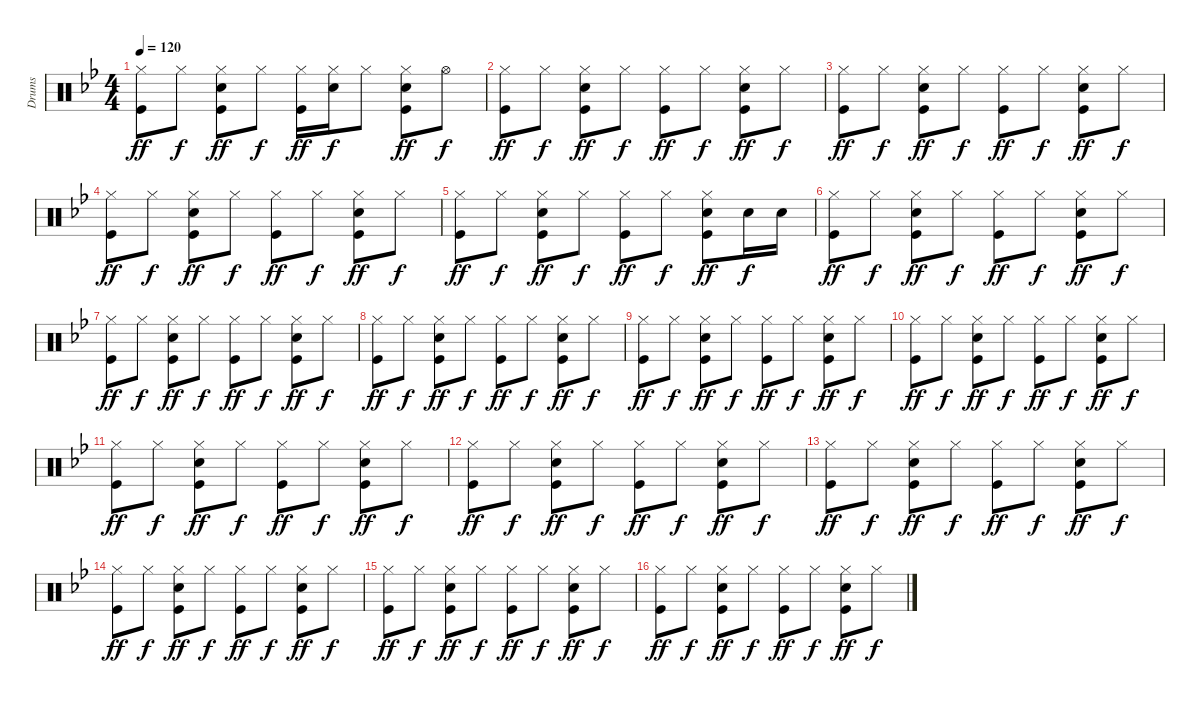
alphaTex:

\track ("Drums" "Drums") {instrument percussion}
\staff {score}
\articulation defaults
\ts (4 4)
\tempo 120
\clef neutral
\ks bb
("Hi-Hat (closed)" "Kick (hit)").8{dy ff} "Hi-Hat (closed)".8{dy f} ("Hi-Hat (closed)" "Snare (hit) 2" "Kick (hit)").8{dy ff} "Hi-Hat (closed)".8{dy f} ("Hi-Hat (closed)" "Kick (hit)").16{dy ff} ("Hi-Hat (closed)" "Snare (hit) 2").16{dy f} "Hi-Hat (closed)".8 ("Hi-Hat (closed)" "Snare (hit) 2" "Kick (hit)").8{dy ff} "Hi-Hat (open)".8{dy f} |
("Hi-Hat (closed)" "Kick (hit)").8{dy ff} "Hi-Hat (closed)".8{dy f} ("Hi-Hat (closed)" "Snare (hit) 2" "Kick (hit)").8{dy ff} "Hi-Hat (closed)".8{dy f} ("Hi-Hat (closed)" "Kick (hit)").8{dy ff} "Hi-Hat (closed)".8{dy f} ("Hi-Hat (closed)" "Snare (hit) 2" "Kick (hit)").8{dy ff} "Hi-Hat (closed)".8{dy f} |
("Hi-Hat (closed)" "Kick (hit)").8{dy ff} "Hi-Hat (closed)".8{dy f} ("Hi-Hat (closed)" "Snare (hit) 2" "Kick (hit)").8{dy ff} "Hi-Hat (closed)".8{dy f} ("Hi-Hat (closed)" "Kick (hit)").8{dy ff} "Hi-Hat (closed)".8{dy f} ("Hi-Hat (closed)" "Snare (hit) 2" "Kick (hit)").8{dy ff} "Hi-Hat (closed)".8{dy f} |
("Hi-Hat (closed)" "Kick (hit)").8{dy ff} "Hi-Hat (closed)".8{dy f} ("Hi-Hat (closed)" "Snare (hit) 2" "Kick (hit)").8{dy ff} "Hi-Hat (closed)".8{dy f} ("Hi-Hat (closed)" "Kick (hit)").8{dy ff} "Hi-Hat (closed)".8{dy f} ("Hi-Hat (closed)" "Snare (hit) 2" "Kick (hit)").8{dy ff} "Hi-Hat (closed)".8{dy f} |
("Hi-Hat (closed)" "Kick (hit)").8{dy ff} "Hi-Hat (closed)".8{dy f} ("Hi-Hat (closed)" "Snare (hit) 2" "Kick (hit)").8{dy ff} "Hi-Hat (closed)".8{dy f} ("Hi-Hat (closed)" "Kick (hit)").8{dy ff} "Hi-Hat (closed)".8{dy f} ("Hi-Hat (closed)" "Snare (hit) 2" "Kick (hit)").8{dy ff} "Snare (hit) 2".16{dy f} "Snare (hit) 2".16 |
("Hi-Hat (closed)" "Kick (hit)").8{dy ff} "Hi-Hat (closed)".8{dy f} ("Hi-Hat (closed)" "Snare (hit) 2" "Kick (hit)").8{dy ff} "Hi-Hat (closed)".8{dy f} ("Hi-Hat (closed)" "Kick (hit)").8{dy ff} "Hi-Hat (closed)".8{dy f} ("Hi-Hat (closed)" "Snare (hit) 2" "Kick (hit)").8{dy ff} "Hi-Hat (closed)".8{dy f} |
("Hi-Hat (closed)" "Kick (hit)").8{dy ff} "Hi-Hat (closed)".8{dy f} ("Hi-Hat (closed)" "Snare (hit) 2" "Kick (hit)").8{dy ff} "Hi-Hat (closed)".8{dy f} ("Hi-Hat (closed)" "Kick (hit)").8{dy ff} "Hi-Hat (closed)".8{dy f} ("Hi-Hat (closed)" "Snare (hit) 2" "Kick (hit)").8{dy ff} "Hi-Hat (closed)".8{dy f} |
("Hi-Hat (closed)" "Kick (hit)").8{dy ff} "Hi-Hat (closed)".8{dy f} ("Hi-Hat (closed)" "Snare (hit) 2" "Kick (hit)").8{dy ff} "Hi-Hat (closed)".8{dy f} ("Hi-Hat (closed)" "Kick (hit)").8{dy ff} "Hi-Hat (closed)".8{dy f} ("Hi-Hat (closed)" "Snare (hit) 2" "Kick (hit)").8{dy ff} "Hi-Hat (closed)".8{dy f} |
("Hi-Hat (closed)" "Kick (hit)").8{dy ff} "Hi-Hat (closed)".8{dy f} ("Hi-Hat (closed)" "Snare (hit) 2" "Kick (hit)").8{dy ff} "Hi-Hat (closed)".8{dy f} ("Hi-Hat (closed)" "Kick (hit)").8{dy ff} "Hi-Hat (closed)".8{dy f} ("Hi-Hat (closed)" "Snare (hit) 2" "Kick (hit)").8{dy ff} "Hi-Hat (closed)".8{dy f} |
("Hi-Hat (closed)" "Kick (hit)").8{dy ff} "Hi-Hat (closed)".8{dy f} ("Hi-Hat (closed)" "Snare (hit) 2" "Kick (hit)").8{dy ff} "Hi-Hat (closed)".8{dy f} ("Hi-Hat (closed)" "Kick (hit)").8{dy ff} "Hi-Hat (closed)".8{dy f} ("Hi-Hat (closed)" "Snare (hit) 2" "Kick (hit)").8{dy ff} "Hi-Hat (closed)".8{dy f} |
("Hi-Hat (closed)" "Kick (hit)").8{dy ff} "Hi-Hat (closed)".8{dy f} ("Hi-Hat (closed)" "Snare (hit) 2" "Kick (hit)").8{dy ff} "Hi-Hat (closed)".8{dy f} ("Hi-Hat (closed)" "Kick (hit)").8{dy ff} "Hi-Hat (closed)".8{dy f} ("Hi-Hat (closed)" "Snare (hit) 2" "Kick (hit)").8{dy ff} "Hi-Hat (closed)".8{dy f} |
("Hi-Hat (closed)" "Kick (hit)").8{dy ff} "Hi-Hat (closed)".8{dy f} ("Hi-Hat (closed)" "Snare (hit) 2" "Kick (hit)").8{dy ff} "Hi-Hat (closed)".8{dy f} ("Hi-Hat (closed)" "Kick (hit)").8{dy ff} "Hi-Hat (closed)".8{dy f} ("Hi-Hat (closed)" "Snare (hit) 2" "Kick (hit)").8{dy ff} "Hi-Hat (closed)".8{dy f} |
("Hi-Hat (closed)" "Kick (hit)").8{dy ff} "Hi-Hat (closed)".8{dy f} ("Hi-Hat (closed)" "Snare (hit) 2" "Kick (hit)").8{dy ff} "Hi-Hat (closed)".8{dy f} ("Hi-Hat (closed)" "Kick (hit)").8{dy ff} "Hi-Hat (closed)".8{dy f} ("Hi-Hat (closed)" "Snare (hit) 2" "Kick (hit)").8{dy ff} "Hi-Hat (closed)".8{dy f} |
("Hi-Hat (closed)" "Kick (hit)").8{dy ff} "Hi-Hat (closed)".8{dy f} ("Hi-Hat (closed)" "Snare (hit) 2" "Kick (hit)").8{dy ff} "Hi-Hat (closed)".8{dy f} ("Hi-Hat (closed)" "Kick (hit)").8{dy ff} "Hi-Hat (closed)".8{dy f} ("Hi-Hat (closed)" "Snare (hit) 2" "Kick (hit)").8{dy ff} "Hi-Hat (closed)".8{dy f} |
("Hi-Hat (closed)" "Kick (hit)").8{dy ff} "Hi-Hat (closed)".8{dy f} ("Hi-Hat (closed)" "Snare (hit) 2" "Kick (hit)").8{dy ff} "Hi-Hat (closed)".8{dy f} ("Hi-Hat (closed)" "Kick (hit)").8{dy ff} "Hi-Hat (closed)".8{dy f} ("Hi-Hat (closed)" "Snare (hit) 2" "Kick (hit)").8{dy ff} "Hi-Hat (closed)".8{dy f} |
("Hi-Hat (closed)" "Kick (hit)").8{dy ff} "Hi-Hat (closed)".8{dy f} ("Hi-Hat (closed)" "Snare (hit) 2" "Kick (hit)").8{dy ff} "Hi-Hat (closed)".8{dy f} ("Hi-Hat (closed)" "Kick (hit)").8{dy ff} "Hi-Hat (closed)".8{dy f} ("Hi-Hat (closed)" "Snare (hit) 2" "Kick (hit)").8{dy ff} "Hi-Hat (closed)".8{dy f}
